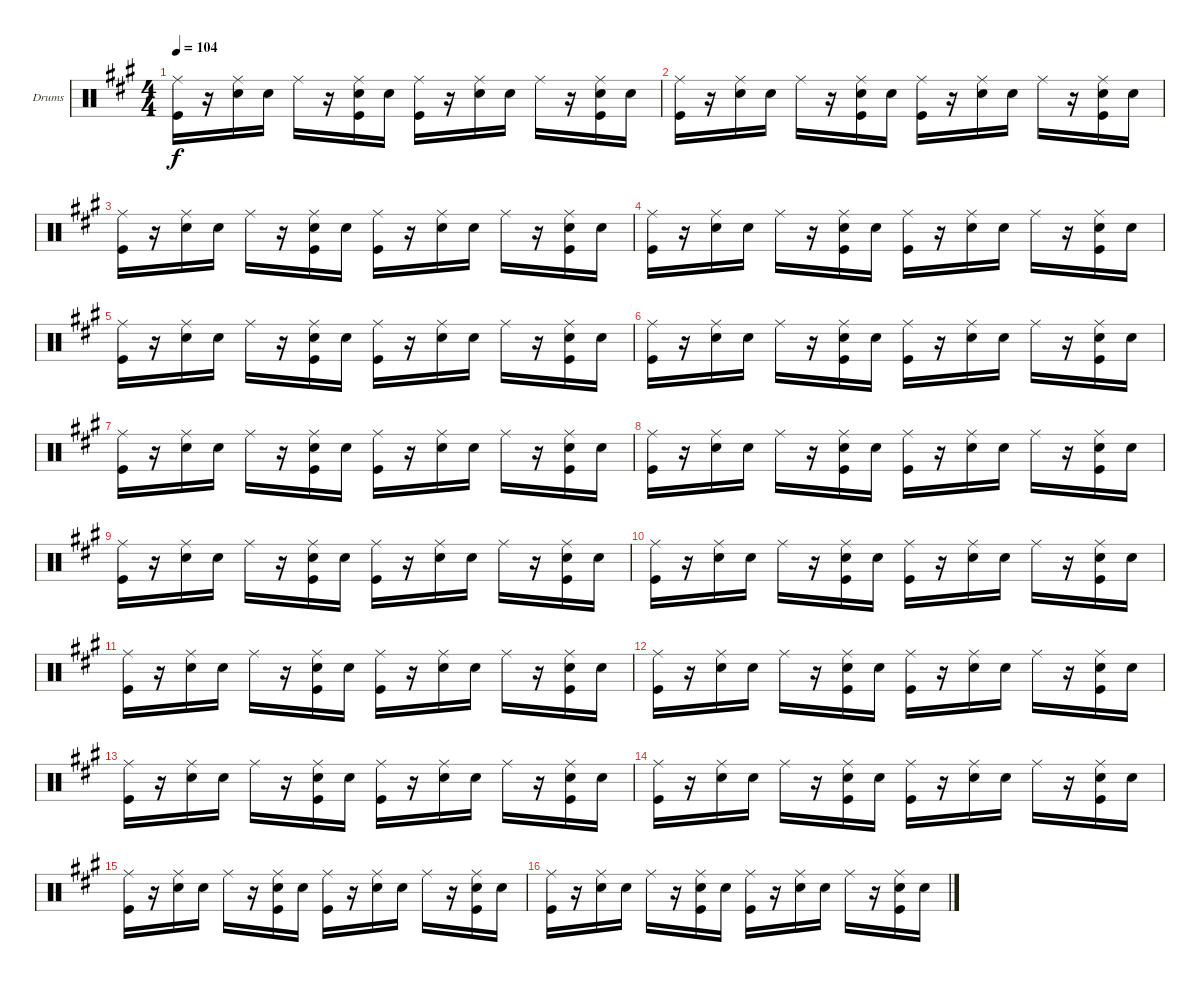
\bracketExtendMode groupsimilarinstruments
\firstSystemTrackNameOrientation horizontal
\otherSystemsTrackNameOrientation horizontal
\track ("Drumkit" "Drums") {instrument percussion}
\staff {score}
\articulation defaults
\ts (4 4)
\tempo 104
\clef neutral
\ks a
("Ride (middle)" "Kick (hit)").16{dy f} r.16 ("Ride (middle)" "Snare (hit) 2").16 "Snare (hit) 2".16 "Ride (middle)".16 r.16 ("Ride (middle)" "Snare (hit) 2" "Kick (hit)").16 "Snare (hit) 2".16 ("Ride (middle)" "Kick (hit)").16 r.16 ("Ride (middle)" "Snare (hit) 2").16 "Snare (hit) 2".16 "Ride (middle)".16 r.16 ("Ride (middle)" "Snare (hit) 2" "Kick (hit)").16 "Snare (hit) 2".16 |
("Ride (middle)" "Kick (hit)").16 r.16 ("Ride (middle)" "Snare (hit) 2").16 "Snare (hit) 2".16 "Ride (middle)".16 r.16 ("Ride (middle)" "Snare (hit) 2" "Kick (hit)").16 "Snare (hit) 2".16 ("Ride (middle)" "Kick (hit)").16 r.16 ("Ride (middle)" "Snare (hit) 2").16 "Snare (hit) 2".16 "Ride (middle)".16 r.16 ("Ride (middle)" "Snare (hit) 2" "Kick (hit)").16 "Snare (hit) 2".16 |
("Ride (middle)" "Kick (hit)").16 r.16 ("Ride (middle)" "Snare (hit) 2").16 "Snare (hit) 2".16 "Ride (middle)".16 r.16 ("Ride (middle)" "Snare (hit) 2" "Kick (hit)").16 "Snare (hit) 2".16 ("Ride (middle)" "Kick (hit)").16 r.16 ("Ride (middle)" "Snare (hit) 2").16 "Snare (hit) 2".16 "Ride (middle)".16 r.16 ("Ride (middle)" "Snare (hit) 2" "Kick (hit)").16 "Snare (hit) 2".16 |
("Ride (middle)" "Kick (hit)").16 r.16 ("Ride (middle)" "Snare (hit) 2").16 "Snare (hit) 2".16 "Ride (middle)".16 r.16 ("Ride (middle)" "Snare (hit) 2" "Kick (hit)").16 "Snare (hit) 2".16 ("Ride (middle)" "Kick (hit)").16 r.16 ("Ride (middle)" "Snare (hit) 2").16 "Snare (hit) 2".16 "Ride (middle)".16 r.16 ("Ride (middle)" "Snare (hit) 2" "Kick (hit)").16 "Snare (hit) 2".16 |
("Ride (middle)" "Kick (hit)").16 r.16 ("Ride (middle)" "Snare (hit) 2").16 "Snare (hit) 2".16 "Ride (middle)".16 r.16 ("Ride (middle)" "Snare (hit) 2" "Kick (hit)").16 "Snare (hit) 2".16 ("Ride (middle)" "Kick (hit)").16 r.16 ("Ride (middle)" "Snare (hit) 2").16 "Snare (hit) 2".16 "Ride (middle)".16 r.16 ("Ride (middle)" "Snare (hit) 2" "Kick (hit)").16 "Snare (hit) 2".16 |
("Ride (middle)" "Kick (hit)").16 r.16 ("Ride (middle)" "Snare (hit) 2").16 "Snare (hit) 2".16 "Ride (middle)".16 r.16 ("Ride (middle)" "Snare (hit) 2" "Kick (hit)").16 "Snare (hit) 2".16 ("Ride (middle)" "Kick (hit)").16 r.16 ("Ride (middle)" "Snare (hit) 2").16 "Snare (hit) 2".16 "Ride (middle)".16 r.16 ("Ride (middle)" "Snare (hit) 2" "Kick (hit)").16 "Snare (hit) 2".16 |
("Ride (middle)" "Kick (hit)").16 r.16 ("Ride (middle)" "Snare (hit) 2").16 "Snare (hit) 2".16 "Ride (middle)".16 r.16 ("Ride (middle)" "Snare (hit) 2" "Kick (hit)").16 "Snare (hit) 2".16 ("Ride (middle)" "Kick (hit)").16 r.16 ("Ride (middle)" "Snare (hit) 2").16 "Snare (hit) 2".16 "Ride (middle)".16 r.16 ("Ride (middle)" "Snare (hit) 2" "Kick (hit)").16 "Snare (hit) 2".16 |
("Ride (middle)" "Kick (hit)").16 r.16 ("Ride (middle)" "Snare (hit) 2").16 "Snare (hit) 2".16 "Ride (middle)".16 r.16 ("Ride (middle)" "Snare (hit) 2" "Kick (hit)").16 "Snare (hit) 2".16 ("Ride (middle)" "Kick (hit)").16 r.16 ("Ride (middle)" "Snare (hit) 2").16 "Snare (hit) 2".16 "Ride (middle)".16 r.16 ("Ride (middle)" "Snare (hit) 2" "Kick (hit)").16 "Snare (hit) 2".16 |
("Ride (middle)" "Kick (hit)").16 r.16 ("Ride (middle)" "Snare (hit) 2").16 "Snare (hit) 2".16 "Ride (middle)".16 r.16 ("Ride (middle)" "Snare (hit) 2" "Kick (hit)").16 "Snare (hit) 2".16 ("Ride (middle)" "Kick (hit)").16 r.16 ("Ride (middle)" "Snare (hit) 2").16 "Snare (hit) 2".16 "Ride (middle)".16 r.16 ("Ride (middle)" "Snare (hit) 2" "Kick (hit)").16 "Snare (hit) 2".16 |
("Ride (middle)" "Kick (hit)").16 r.16 ("Ride (middle)" "Snare (hit) 2").16 "Snare (hit) 2".16 "Ride (middle)".16 r.16 ("Ride (middle)" "Snare (hit) 2" "Kick (hit)").16 "Snare (hit) 2".16 ("Ride (middle)" "Kick (hit)").16 r.16 ("Ride (middle)" "Snare (hit) 2").16 "Snare (hit) 2".16 "Ride (middle)".16 r.16 ("Ride (middle)" "Snare (hit) 2" "Kick (hit)").16 "Snare (hit) 2".16 |
("Ride (middle)" "Kick (hit)").16 r.16 ("Ride (middle)" "Snare (hit) 2").16 "Snare (hit) 2".16 "Ride (middle)".16 r.16 ("Ride (middle)" "Snare (hit) 2" "Kick (hit)").16 "Snare (hit) 2".16 ("Ride (middle)" "Kick (hit)").16 r.16 ("Ride (middle)" "Snare (hit) 2").16 "Snare (hit) 2".16 "Ride (middle)".16 r.16 ("Ride (middle)" "Snare (hit) 2" "Kick (hit)").16 "Snare (hit) 2".16 |
("Ride (middle)" "Kick (hit)").16 r.16 ("Ride (middle)" "Snare (hit) 2").16 "Snare (hit) 2".16 "Ride (middle)".16 r.16 ("Ride (middle)" "Snare (hit) 2" "Kick (hit)").16 "Snare (hit) 2".16 ("Ride (middle)" "Kick (hit)").16 r.16 ("Ride (middle)" "Snare (hit) 2").16 "Snare (hit) 2".16 "Ride (middle)".16 r.16 ("Ride (middle)" "Snare (hit) 2" "Kick (hit)").16 "Snare (hit) 2".16 |
("Ride (middle)" "Kick (hit)").16 r.16 ("Ride (middle)" "Snare (hit) 2").16 "Snare (hit) 2".16 "Ride (middle)".16 r.16 ("Ride (middle)" "Snare (hit) 2" "Kick (hit)").16 "Snare (hit) 2".16 ("Ride (middle)" "Kick (hit)").16 r.16 ("Ride (middle)" "Snare (hit) 2").16 "Snare (hit) 2".16 "Ride (middle)".16 r.16 ("Ride (middle)" "Snare (hit) 2" "Kick (hit)").16 "Snare (hit) 2".16 |
("Ride (middle)" "Kick (hit)").16 r.16 ("Ride (middle)" "Snare (hit) 2").16 "Snare (hit) 2".16 "Ride (middle)".16 r.16 ("Ride (middle)" "Snare (hit) 2" "Kick (hit)").16 "Snare (hit) 2".16 ("Ride (middle)" "Kick (hit)").16 r.16 ("Ride (middle)" "Snare (hit) 2").16 "Snare (hit) 2".16 "Ride (middle)".16 r.16 ("Ride (middle)" "Snare (hit) 2" "Kick (hit)").16 "Snare (hit) 2".16 |
("Ride (middle)" "Kick (hit)").16 r.16 ("Ride (middle)" "Snare (hit) 2").16 "Snare (hit) 2".16 "Ride (middle)".16 r.16 ("Ride (middle)" "Snare (hit) 2" "Kick (hit)").16 "Snare (hit) 2".16 ("Ride (middle)" "Kick (hit)").16 r.16 ("Ride (middle)" "Snare (hit) 2").16 "Snare (hit) 2".16 "Ride (middle)".16 r.16 ("Ride (middle)" "Snare (hit) 2" "Kick (hit)").16 "Snare (hit) 2".16 |
("Ride (middle)" "Kick (hit)").16 r.16 ("Ride (middle)" "Snare (hit) 2").16 "Snare (hit) 2".16 "Ride (middle)".16 r.16 ("Ride (middle)" "Snare (hit) 2" "Kick (hit)").16 "Snare (hit) 2".16 ("Ride (middle)" "Kick (hit)").16 r.16 ("Ride (middle)" "Snare (hit) 2").16 "Snare (hit) 2".16 "Ride (middle)".16 r.16 ("Ride (middle)" "Snare (hit) 2" "Kick (hit)").16 "Snare (hit) 2".16
